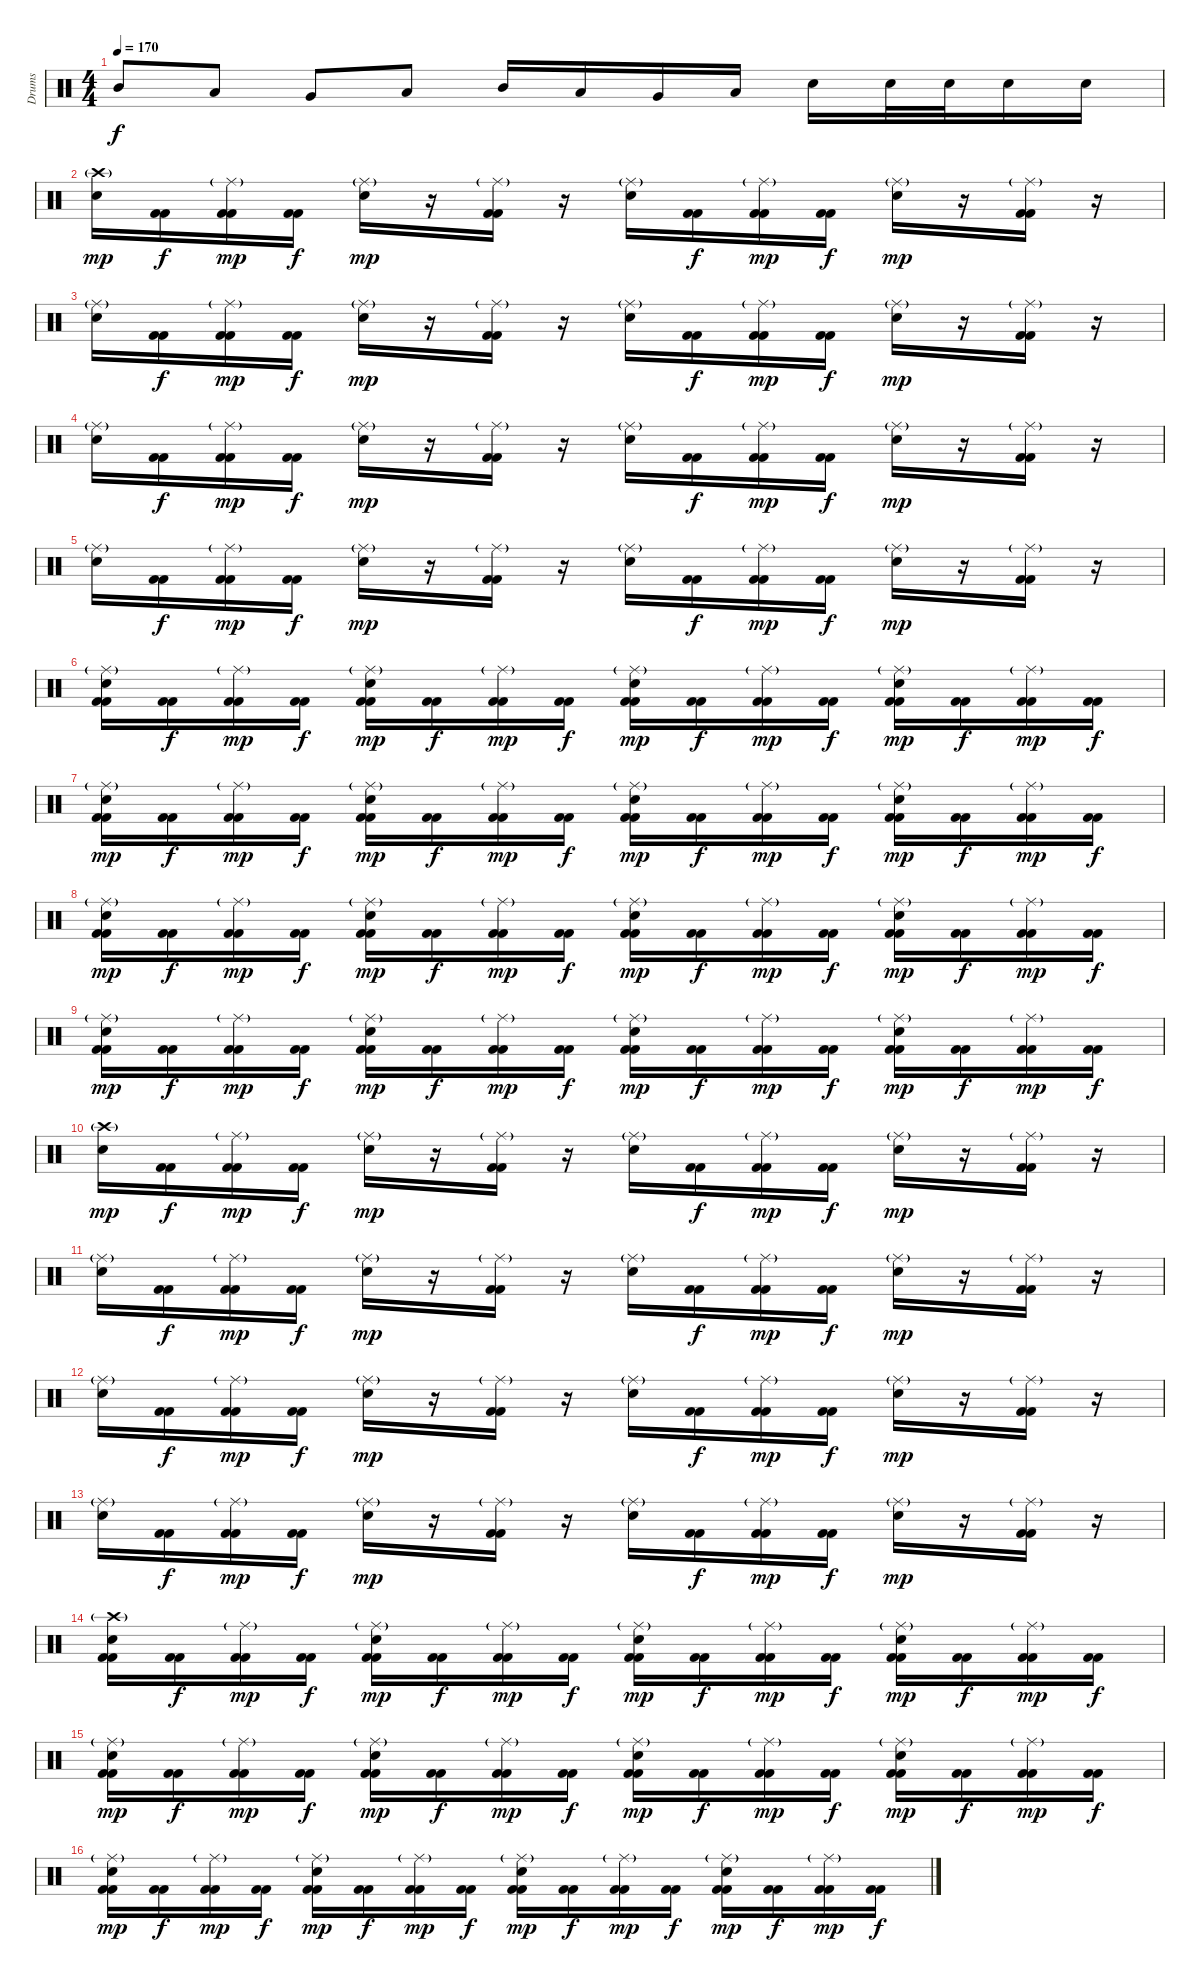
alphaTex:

\track ("Drums" "Drums") {instrument percussion}
\staff {score}
\articulation defaults
\ts (4 4)
\tempo 170
\clef neutral
\ks c "Mid Tom (hit)".8{dy f} "Low Tom (hit)".8 "Very Low Tom (hit)".8 "Low Floor Tom (hit)".8 "Mid Tom (hit)".16 "Low Tom (hit)".16 "Very Low Tom (hit)".16 "Low Floor Tom (hit)".16 "Electric Snare (hit)".16 "Electric Snare (hit)".32 "Electric Snare (hit)".32 "Electric Snare (hit)".16 "Electric Snare (hit)".16
|
("Crash high (hit)"{g} "Electric Snare (hit)").16{dy mp} ("Kick (hit) 2" "Kick (hit) 2").16{dy f} ("Ride (middle)"{g} "Kick (hit) 2" "Kick (hit) 2").16{dy mp} ("Kick (hit) 2" "Kick (hit) 2").16{dy f} ("Ride (middle)"{g} "Electric Snare (hit)").16{dy mp} r.16 ("Ride (middle)"{g} "Kick (hit) 2" "Kick (hit) 2").16 r.16 ("Ride (middle)"{g} "Electric Snare (hit)").16 ("Kick (hit) 2" "Kick (hit) 2").16{dy f} ("Ride (middle)"{g} "Kick (hit) 2" "Kick (hit) 2").16{dy mp} ("Kick (hit) 2" "Kick (hit) 2").16{dy f} ("Ride (middle)"{g} "Electric Snare (hit)").16{dy mp} r.16 ("Ride (middle)"{g} "Kick (hit) 2" "Kick (hit) 2").16 r.16 |
("Ride (middle)"{g} "Electric Snare (hit)").16 ("Kick (hit) 2" "Kick (hit) 2").16{dy f} ("Ride (middle)"{g} "Kick (hit) 2" "Kick (hit) 2").16{dy mp} ("Kick (hit) 2" "Kick (hit) 2").16{dy f} ("Ride (middle)"{g} "Electric Snare (hit)").16{dy mp} r.16 ("Ride (middle)"{g} "Kick (hit) 2" "Kick (hit) 2").16 r.16 ("Ride (middle)"{g} "Electric Snare (hit)").16 ("Kick (hit) 2" "Kick (hit) 2").16{dy f} ("Ride (middle)"{g} "Kick (hit) 2" "Kick (hit) 2").16{dy mp} ("Kick (hit) 2" "Kick (hit) 2").16{dy f} ("Ride (middle)"{g} "Electric Snare (hit)").16{dy mp} r.16 ("Ride (middle)"{g} "Kick (hit) 2" "Kick (hit) 2").16 r.16 |
("Ride (middle)"{g} "Electric Snare (hit)").16 ("Kick (hit) 2" "Kick (hit) 2").16{dy f} ("Ride (middle)"{g} "Kick (hit) 2" "Kick (hit) 2").16{dy mp} ("Kick (hit) 2" "Kick (hit) 2").16{dy f} ("Ride (middle)"{g} "Electric Snare (hit)").16{dy mp} r.16 ("Ride (middle)"{g} "Kick (hit) 2" "Kick (hit) 2").16 r.16 ("Ride (middle)"{g} "Electric Snare (hit)").16 ("Kick (hit) 2" "Kick (hit) 2").16{dy f} ("Ride (middle)"{g} "Kick (hit) 2" "Kick (hit) 2").16{dy mp} ("Kick (hit) 2" "Kick (hit) 2").16{dy f} ("Ride (middle)"{g} "Electric Snare (hit)").16{dy mp} r.16 ("Ride (middle)"{g} "Kick (hit) 2" "Kick (hit) 2").16 r.16 |
("Ride (middle)"{g} "Electric Snare (hit)").16 ("Kick (hit) 2" "Kick (hit) 2").16{dy f} ("Ride (middle)"{g} "Kick (hit) 2" "Kick (hit) 2").16{dy mp} ("Kick (hit) 2" "Kick (hit) 2").16{dy f} ("Ride (middle)"{g} "Electric Snare (hit)").16{dy mp} r.16 ("Ride (middle)"{g} "Kick (hit) 2" "Kick (hit) 2").16 r.16 ("Ride (middle)"{g} "Electric Snare (hit)").16 ("Kick (hit) 2" "Kick (hit) 2").16{dy f} ("Ride (middle)"{g} "Kick (hit) 2" "Kick (hit) 2").16{dy mp} ("Kick (hit) 2" "Kick (hit) 2").16{dy f} ("Ride (middle)"{g} "Electric Snare (hit)").16{dy mp} r.16 ("Ride (middle)"{g} "Kick (hit) 2" "Kick (hit) 2").16 r.16 |
("Ride (middle)"{g} "Kick (hit) 2" "Electric Snare (hit)" "Kick (hit) 2").16 ("Kick (hit) 2" "Kick (hit) 2").16{dy f} ("Ride (middle)"{g} "Kick (hit) 2" "Kick (hit) 2").16{dy mp} ("Kick (hit) 2" "Kick (hit) 2").16{dy f} ("Ride (middle)"{g} "Kick (hit) 2" "Electric Snare (hit)" "Kick (hit) 2").16{dy mp} ("Kick (hit) 2" "Kick (hit) 2").16{dy f} ("Ride (middle)"{g} "Kick (hit) 2" "Kick (hit) 2").16{dy mp} ("Kick (hit) 2" "Kick (hit) 2").16{dy f} ("Ride (middle)"{g} "Kick (hit) 2" "Electric Snare (hit)" "Kick (hit) 2").16{dy mp} ("Kick (hit) 2" "Kick (hit) 2").16{dy f} ("Ride (middle)"{g} "Kick (hit) 2" "Kick (hit) 2").16{dy mp} ("Kick (hit) 2" "Kick (hit) 2").16{dy f} ("Ride (middle)"{g} "Kick (hit) 2" "Electric Snare (hit)" "Kick (hit) 2").16{dy mp} ("Kick (hit) 2" "Kick (hit) 2").16{dy f} ("Ride (middle)"{g} "Kick (hit) 2" "Kick (hit) 2").16{dy mp} ("Kick (hit) 2" "Kick (hit) 2").16{dy f} |
("Ride (middle)"{g} "Kick (hit) 2" "Electric Snare (hit)" "Kick (hit) 2").16{dy mp} ("Kick (hit) 2" "Kick (hit) 2").16{dy f} ("Ride (middle)"{g} "Kick (hit) 2" "Kick (hit) 2").16{dy mp} ("Kick (hit) 2" "Kick (hit) 2").16{dy f} ("Ride (middle)"{g} "Kick (hit) 2" "Electric Snare (hit)" "Kick (hit) 2").16{dy mp} ("Kick (hit) 2" "Kick (hit) 2").16{dy f} ("Ride (middle)"{g} "Kick (hit) 2" "Kick (hit) 2").16{dy mp} ("Kick (hit) 2" "Kick (hit) 2").16{dy f} ("Ride (middle)"{g} "Kick (hit) 2" "Electric Snare (hit)" "Kick (hit) 2").16{dy mp} ("Kick (hit) 2" "Kick (hit) 2").16{dy f} ("Ride (middle)"{g} "Kick (hit) 2" "Kick (hit) 2").16{dy mp} ("Kick (hit) 2" "Kick (hit) 2").16{dy f} ("Ride (middle)"{g} "Kick (hit) 2" "Electric Snare (hit)" "Kick (hit) 2").16{dy mp} ("Kick (hit) 2" "Kick (hit) 2").16{dy f} ("Ride (middle)"{g} "Kick (hit) 2" "Kick (hit) 2").16{dy mp} ("Kick (hit) 2" "Kick (hit) 2").16{dy f} |
("Ride (middle)"{g} "Kick (hit) 2" "Electric Snare (hit)" "Kick (hit) 2").16{dy mp} ("Kick (hit) 2" "Kick (hit) 2").16{dy f} ("Ride (middle)"{g} "Kick (hit) 2" "Kick (hit) 2").16{dy mp} ("Kick (hit) 2" "Kick (hit) 2").16{dy f} ("Ride (middle)"{g} "Kick (hit) 2" "Electric Snare (hit)" "Kick (hit) 2").16{dy mp} ("Kick (hit) 2" "Kick (hit) 2").16{dy f} ("Ride (middle)"{g} "Kick (hit) 2" "Kick (hit) 2").16{dy mp} ("Kick (hit) 2" "Kick (hit) 2").16{dy f} ("Ride (middle)"{g} "Kick (hit) 2" "Electric Snare (hit)" "Kick (hit) 2").16{dy mp} ("Kick (hit) 2" "Kick (hit) 2").16{dy f} ("Ride (middle)"{g} "Kick (hit) 2" "Kick (hit) 2").16{dy mp} ("Kick (hit) 2" "Kick (hit) 2").16{dy f} ("Ride (middle)"{g} "Kick (hit) 2" "Electric Snare (hit)" "Kick (hit) 2").16{dy mp} ("Kick (hit) 2" "Kick (hit) 2").16{dy f} ("Ride (middle)"{g} "Kick (hit) 2" "Kick (hit) 2").16{dy mp} ("Kick (hit) 2" "Kick (hit) 2").16{dy f} |
("Ride (middle)"{g} "Kick (hit) 2" "Electric Snare (hit)" "Kick (hit) 2").16{dy mp} ("Kick (hit) 2" "Kick (hit) 2").16{dy f} ("Ride (middle)"{g} "Kick (hit) 2" "Kick (hit) 2").16{dy mp} ("Kick (hit) 2" "Kick (hit) 2").16{dy f} ("Ride (middle)"{g} "Kick (hit) 2" "Electric Snare (hit)" "Kick (hit) 2").16{dy mp} ("Kick (hit) 2" "Kick (hit) 2").16{dy f} ("Ride (middle)"{g} "Kick (hit) 2" "Kick (hit) 2").16{dy mp} ("Kick (hit) 2" "Kick (hit) 2").16{dy f} ("Ride (middle)"{g} "Kick (hit) 2" "Electric Snare (hit)" "Kick (hit) 2").16{dy mp} ("Kick (hit) 2" "Kick (hit) 2").16{dy f} ("Ride (middle)"{g} "Kick (hit) 2" "Kick (hit) 2").16{dy mp} ("Kick (hit) 2" "Kick (hit) 2").16{dy f} ("Ride (middle)"{g} "Kick (hit) 2" "Electric Snare (hit)" "Kick (hit) 2").16{dy mp} ("Kick (hit) 2" "Kick (hit) 2").16{dy f} ("Ride (middle)"{g} "Kick (hit) 2" "Kick (hit) 2").16{dy mp} ("Kick (hit) 2" "Kick (hit) 2").16{dy f} |
("Crash high (hit)"{g} "Electric Snare (hit)").16{dy mp} ("Kick (hit) 2" "Kick (hit) 2").16{dy f} ("Ride (middle)"{g} "Kick (hit) 2" "Kick (hit) 2").16{dy mp} ("Kick (hit) 2" "Kick (hit) 2").16{dy f} ("Ride (middle)"{g} "Electric Snare (hit)").16{dy mp} r.16 ("Ride (middle)"{g} "Kick (hit) 2" "Kick (hit) 2").16 r.16 ("Ride (middle)"{g} "Electric Snare (hit)").16 ("Kick (hit) 2" "Kick (hit) 2").16{dy f} ("Ride (middle)"{g} "Kick (hit) 2" "Kick (hit) 2").16{dy mp} ("Kick (hit) 2" "Kick (hit) 2").16{dy f} ("Ride (middle)"{g} "Electric Snare (hit)").16{dy mp} r.16 ("Ride (middle)"{g} "Kick (hit) 2" "Kick (hit) 2").16 r.16 |
("Ride (middle)"{g} "Electric Snare (hit)").16 ("Kick (hit) 2" "Kick (hit) 2").16{dy f} ("Ride (middle)"{g} "Kick (hit) 2" "Kick (hit) 2").16{dy mp} ("Kick (hit) 2" "Kick (hit) 2").16{dy f} ("Ride (middle)"{g} "Electric Snare (hit)").16{dy mp} r.16 ("Ride (middle)"{g} "Kick (hit) 2" "Kick (hit) 2").16 r.16 ("Ride (middle)"{g} "Electric Snare (hit)").16 ("Kick (hit) 2" "Kick (hit) 2").16{dy f} ("Ride (middle)"{g} "Kick (hit) 2" "Kick (hit) 2").16{dy mp} ("Kick (hit) 2" "Kick (hit) 2").16{dy f} ("Ride (middle)"{g} "Electric Snare (hit)").16{dy mp} r.16 ("Ride (middle)"{g} "Kick (hit) 2" "Kick (hit) 2").16 r.16 |
("Ride (middle)"{g} "Electric Snare (hit)").16 ("Kick (hit) 2" "Kick (hit) 2").16{dy f} ("Ride (middle)"{g} "Kick (hit) 2" "Kick (hit) 2").16{dy mp} ("Kick (hit) 2" "Kick (hit) 2").16{dy f} ("Ride (middle)"{g} "Electric Snare (hit)").16{dy mp} r.16 ("Ride (middle)"{g} "Kick (hit) 2" "Kick (hit) 2").16 r.16 ("Ride (middle)"{g} "Electric Snare (hit)").16 ("Kick (hit) 2" "Kick (hit) 2").16{dy f} ("Ride (middle)"{g} "Kick (hit) 2" "Kick (hit) 2").16{dy mp} ("Kick (hit) 2" "Kick (hit) 2").16{dy f} ("Ride (middle)"{g} "Electric Snare (hit)").16{dy mp} r.16 ("Ride (middle)"{g} "Kick (hit) 2" "Kick (hit) 2").16 r.16 |
("Ride (middle)"{g} "Electric Snare (hit)").16 ("Kick (hit) 2" "Kick (hit) 2").16{dy f} ("Ride (middle)"{g} "Kick (hit) 2" "Kick (hit) 2").16{dy mp} ("Kick (hit) 2" "Kick (hit) 2").16{dy f} ("Ride (middle)"{g} "Electric Snare (hit)").16{dy mp} r.16 ("Ride (middle)"{g} "Kick (hit) 2" "Kick (hit) 2").16 r.16 ("Ride (middle)"{g} "Electric Snare (hit)").16 ("Kick (hit) 2" "Kick (hit) 2").16{dy f} ("Ride (middle)"{g} "Kick (hit) 2" "Kick (hit) 2").16{dy mp} ("Kick (hit) 2" "Kick (hit) 2").16{dy f} ("Ride (middle)"{g} "Electric Snare (hit)").16{dy mp} r.16 ("Ride (middle)"{g} "Kick (hit) 2" "Kick (hit) 2").16 r.16 |
("Crash high (hit)"{g} "Kick (hit) 2" "Electric Snare (hit)" "Kick (hit) 2").16 ("Kick (hit) 2" "Kick (hit) 2").16{dy f} ("Ride (middle)"{g} "Kick (hit) 2" "Kick (hit) 2").16{dy mp} ("Kick (hit) 2" "Kick (hit) 2").16{dy f} ("Ride (middle)"{g} "Kick (hit) 2" "Electric Snare (hit)" "Kick (hit) 2").16{dy mp} ("Kick (hit) 2" "Kick (hit) 2").16{dy f} ("Ride (middle)"{g} "Kick (hit) 2" "Kick (hit) 2").16{dy mp} ("Kick (hit) 2" "Kick (hit) 2").16{dy f} ("Ride (middle)"{g} "Kick (hit) 2" "Electric Snare (hit)" "Kick (hit) 2").16{dy mp} ("Kick (hit) 2" "Kick (hit) 2").16{dy f} ("Ride (middle)"{g} "Kick (hit) 2" "Kick (hit) 2").16{dy mp} ("Kick (hit) 2" "Kick (hit) 2").16{dy f} ("Ride (middle)"{g} "Kick (hit) 2" "Electric Snare (hit)" "Kick (hit) 2").16{dy mp} ("Kick (hit) 2" "Kick (hit) 2").16{dy f} ("Ride (middle)"{g} "Kick (hit) 2" "Kick (hit) 2").16{dy mp} ("Kick (hit) 2" "Kick (hit) 2").16{dy f} |
("Ride (middle)"{g} "Kick (hit) 2" "Electric Snare (hit)" "Kick (hit) 2").16{dy mp} ("Kick (hit) 2" "Kick (hit) 2").16{dy f} ("Ride (middle)"{g} "Kick (hit) 2" "Kick (hit) 2").16{dy mp} ("Kick (hit) 2" "Kick (hit) 2").16{dy f} ("Ride (middle)"{g} "Kick (hit) 2" "Electric Snare (hit)" "Kick (hit) 2").16{dy mp} ("Kick (hit) 2" "Kick (hit) 2").16{dy f} ("Ride (middle)"{g} "Kick (hit) 2" "Kick (hit) 2").16{dy mp} ("Kick (hit) 2" "Kick (hit) 2").16{dy f} ("Ride (middle)"{g} "Kick (hit) 2" "Electric Snare (hit)" "Kick (hit) 2").16{dy mp} ("Kick (hit) 2" "Kick (hit) 2").16{dy f} ("Ride (middle)"{g} "Kick (hit) 2" "Kick (hit) 2").16{dy mp} ("Kick (hit) 2" "Kick (hit) 2").16{dy f} ("Ride (middle)"{g} "Kick (hit) 2" "Electric Snare (hit)" "Kick (hit) 2").16{dy mp} ("Kick (hit) 2" "Kick (hit) 2").16{dy f} ("Ride (middle)"{g} "Kick (hit) 2" "Kick (hit) 2").16{dy mp} ("Kick (hit) 2" "Kick (hit) 2").16{dy f} |
("Ride (middle)"{g} "Kick (hit) 2" "Electric Snare (hit)" "Kick (hit) 2").16{dy mp} ("Kick (hit) 2" "Kick (hit) 2").16{dy f} ("Ride (middle)"{g} "Kick (hit) 2" "Kick (hit) 2").16{dy mp} ("Kick (hit) 2" "Kick (hit) 2").16{dy f} ("Ride (middle)"{g} "Kick (hit) 2" "Electric Snare (hit)" "Kick (hit) 2").16{dy mp} ("Kick (hit) 2" "Kick (hit) 2").16{dy f} ("Ride (middle)"{g} "Kick (hit) 2" "Kick (hit) 2").16{dy mp} ("Kick (hit) 2" "Kick (hit) 2").16{dy f} ("Ride (middle)"{g} "Kick (hit) 2" "Electric Snare (hit)" "Kick (hit) 2").16{dy mp} ("Kick (hit) 2" "Kick (hit) 2").16{dy f} ("Ride (middle)"{g} "Kick (hit) 2" "Kick (hit) 2").16{dy mp} ("Kick (hit) 2" "Kick (hit) 2").16{dy f} ("Ride (middle)"{g} "Kick (hit) 2" "Electric Snare (hit)" "Kick (hit) 2").16{dy mp} ("Kick (hit) 2" "Kick (hit) 2").16{dy f} ("Ride (middle)"{g} "Kick (hit) 2" "Kick (hit) 2").16{dy mp} ("Kick (hit) 2" "Kick (hit) 2").16{dy f}
